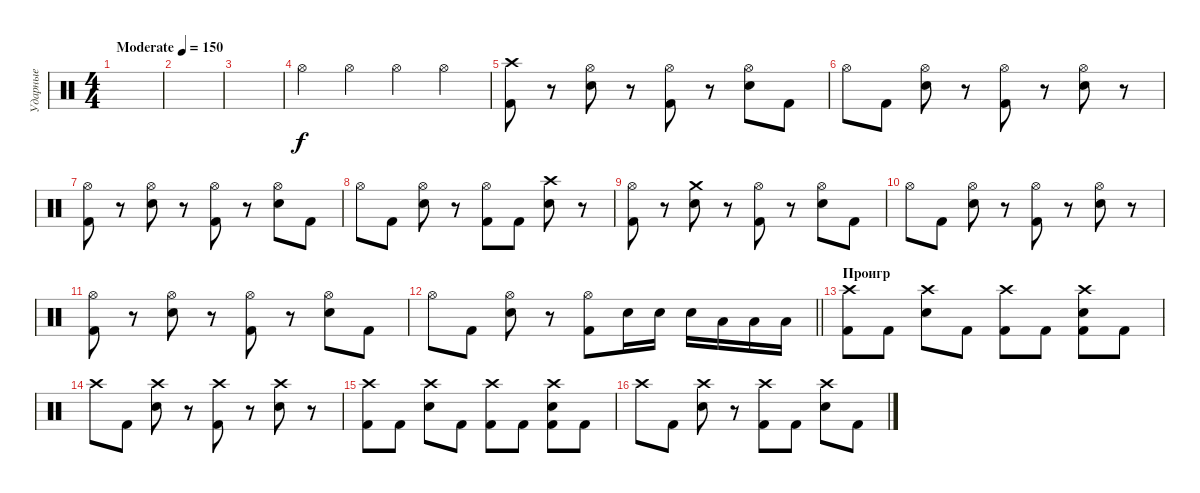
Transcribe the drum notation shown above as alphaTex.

\track ("Ударные" "Ударные") {instrument percussion}
\staff {score}
\articulation defaults
\ts (4 4)
\tempo (150 "Moderate")
\clef neutral
\ks c
|
|
|
"Hi-Hat (open)".4 "Hi-Hat (open)".4 "Hi-Hat (open)".4 "Hi-Hat (open)".4 |
("Crash high (hit)" "Kick (hit) 2").8 r.8 ("Hi-Hat (open)" "Snare (hit) 2").8 r.8 ("Hi-Hat (open)" "Kick (hit) 2").8 r.8 ("Hi-Hat (open)" "Snare (hit) 2").8 "Kick (hit) 2".8 |
"Hi-Hat (open)".8 "Kick (hit) 2".8 ("Hi-Hat (open)" "Snare (hit) 2").8 r.8 ("Hi-Hat (open)" "Kick (hit) 2").8 r.8 ("Hi-Hat (open)" "Snare (hit) 2").8 r.8 |
("Hi-Hat (open)" "Kick (hit) 2").8 r.8 ("Hi-Hat (open)" "Snare (hit) 2").8 r.8 ("Hi-Hat (open)" "Kick (hit) 2").8 r.8 ("Hi-Hat (open)" "Snare (hit) 2").8 "Kick (hit) 2".8 |
"Hi-Hat (open)".8 "Kick (hit) 2".8 ("Hi-Hat (open)" "Snare (hit) 2").8 r.8 ("Hi-Hat (open)" "Kick (hit) 2").8 "Kick (hit) 2".8 ("Crash high (hit)" "Snare (hit) 2").8 r.8 |
("Hi-Hat (open)" "Kick (hit) 2").8 r.8 ("Crash medium (hit)" "Snare (hit) 2").8 r.8 ("Hi-Hat (open)" "Kick (hit) 2").8 r.8 ("Hi-Hat (open)" "Snare (hit) 2").8 "Kick (hit) 2".8 |
"Hi-Hat (open)".8 "Kick (hit) 2".8 ("Hi-Hat (open)" "Snare (hit) 2").8 r.8 ("Hi-Hat (open)" "Kick (hit) 2").8 r.8 ("Hi-Hat (open)" "Snare (hit) 2").8 r.8 |
("Hi-Hat (open)" "Kick (hit) 2").8 r.8 ("Hi-Hat (open)" "Snare (hit) 2").8 r.8 ("Hi-Hat (open)" "Kick (hit) 2").8 r.8 ("Hi-Hat (open)" "Snare (hit) 2").8 "Kick (hit) 2".8 |
\barLineRight lightlight "Hi-Hat (open)".8 "Kick (hit) 2".8
("Hi-Hat (open)" "Snare (hit) 2").8 r.8 ("Hi-Hat (open)" "Kick (hit) 2").8 "Snare (hit) 2".16 "Snare (hit) 2".16 "Snare (hit) 2".16 "Low Floor Tom (hit)".16 "Low Floor Tom (hit)".16 "Low Floor Tom (hit)".16 |
\section ("" "Проигр")
("Crash high (hit)" "Kick (hit) 2").8 "Kick (hit) 2".8 ("Crash high (hit)" "Snare (hit) 2").8 "Kick (hit) 2".8 ("Crash high (hit)" "Kick (hit) 2").8 "Kick (hit) 2".8 ("Crash high (hit)" "Snare (hit) 2" "Kick (hit) 2").8 "Kick (hit) 2".8 |
"Crash high (hit)".8 "Kick (hit) 2".8 ("Crash high (hit)" "Snare (hit) 2").8 r.8 ("Crash high (hit)" "Kick (hit) 2").8 r.8 ("Crash high (hit)" "Snare (hit) 2").8 r.8 |
("Crash high (hit)" "Kick (hit) 2").8 "Kick (hit) 2".8 ("Crash high (hit)" "Snare (hit) 2").8 "Kick (hit) 2".8 ("Crash high (hit)" "Kick (hit) 2").8 "Kick (hit) 2".8 ("Crash high (hit)" "Snare (hit) 2" "Kick (hit) 2").8 "Kick (hit) 2".8 |
"Crash high (hit)".8 "Kick (hit) 2".8 ("Crash high (hit)" "Snare (hit) 2").8 r.8 ("Crash high (hit)" "Kick (hit) 2").8 "Kick (hit) 2".8 ("Crash high (hit)" "Snare (hit) 2").8 "Kick (hit) 2".8
